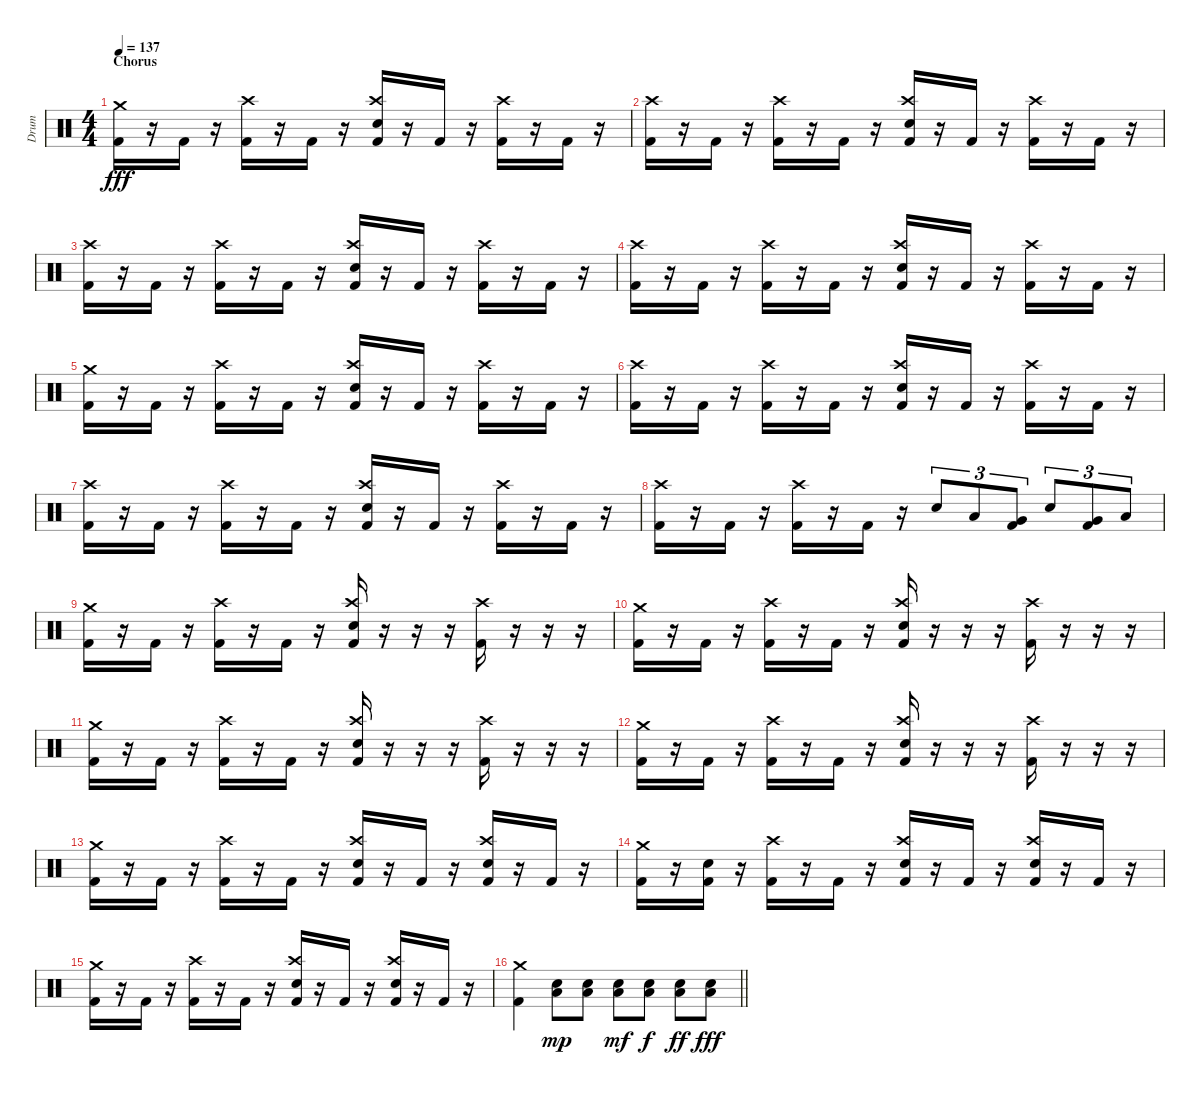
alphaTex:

\track ("Drum" "Drum") {instrument percussion}
\staff {score}
\articulation defaults
\ts (4 4)
\section ("" "Chorus")
\tempo 137
\clef neutral
\ks c
("Crash medium (hit)" "Kick (hit) 2").16{dy fff} r.16 "Kick (hit) 2".16 r.16 ("Crash high (hit)" "Kick (hit) 2").16 r.16 "Kick (hit) 2".16 r.16 ("Crash high (hit)" "Electric Snare (hit)" "Kick (hit) 2").16 r.16 "Kick (hit) 2".16 r.16 ("Crash high (hit)" "Kick (hit) 2").16 r.16 "Kick (hit) 2".16 r.16 |
("Crash high (hit)" "Kick (hit) 2").16 r.16 "Kick (hit) 2".16 r.16 ("Crash high (hit)" "Kick (hit) 2").16 r.16 "Kick (hit) 2".16 r.16 ("Crash high (hit)" "Electric Snare (hit)" "Kick (hit) 2").16 r.16 "Kick (hit) 2".16 r.16 ("Crash high (hit)" "Kick (hit) 2").16 r.16 "Kick (hit) 2".16 r.16 |
("Crash high (hit)" "Kick (hit) 2").16 r.16 "Kick (hit) 2".16 r.16 ("Crash high (hit)" "Kick (hit) 2").16 r.16 "Kick (hit) 2".16 r.16 ("Crash high (hit)" "Electric Snare (hit)" "Kick (hit) 2").16 r.16 "Kick (hit) 2".16 r.16 ("Crash high (hit)" "Kick (hit) 2").16 r.16 "Kick (hit) 2".16 r.16 |
("Crash high (hit)" "Kick (hit) 2").16 r.16 "Kick (hit) 2".16 r.16 ("Crash high (hit)" "Kick (hit) 2").16 r.16 "Kick (hit) 2".16 r.16 ("Crash high (hit)" "Electric Snare (hit)" "Kick (hit) 2").16 r.16 "Kick (hit) 2".16 r.16 ("Crash high (hit)" "Kick (hit) 2").16 r.16 "Kick (hit) 2".16 r.16 |
("Crash medium (hit)" "Kick (hit) 2").16 r.16 "Kick (hit) 2".16 r.16 ("Crash high (hit)" "Kick (hit) 2").16 r.16 "Kick (hit) 2".16 r.16 ("Crash high (hit)" "Electric Snare (hit)" "Kick (hit) 2").16 r.16 "Kick (hit) 2".16 r.16 ("Crash high (hit)" "Kick (hit) 2").16 r.16 "Kick (hit) 2".16 r.16 |
("Crash high (hit)" "Kick (hit) 2").16 r.16 "Kick (hit) 2".16 r.16 ("Crash high (hit)" "Kick (hit) 2").16 r.16 "Kick (hit) 2".16 r.16 ("Crash high (hit)" "Electric Snare (hit)" "Kick (hit) 2").16 r.16 "Kick (hit) 2".16 r.16 ("Crash high (hit)" "Kick (hit) 2").16 r.16 "Kick (hit) 2".16 r.16 |
("Crash high (hit)" "Kick (hit) 2").16 r.16 "Kick (hit) 2".16 r.16 ("Crash high (hit)" "Kick (hit) 2").16 r.16 "Kick (hit) 2".16 r.16 ("Crash high (hit)" "Electric Snare (hit)" "Kick (hit) 2").16 r.16 "Kick (hit) 2".16 r.16 ("Crash high (hit)" "Kick (hit) 2").16 r.16 "Kick (hit) 2".16 r.16 |
("Crash high (hit)" "Kick (hit) 2").16 r.16 "Kick (hit) 2".16 r.16 ("Crash high (hit)" "Kick (hit) 2").16 r.16 "Kick (hit) 2".16 r.16 "Electric Snare (hit)".8{tu (3 2)} "Low Tom (hit)".8{tu (3 2)} ("Very Low Tom (hit)" "Kick (hit) 2").8{tu (3 2)} "Electric Snare (hit)".8{tu (3 2)} ("Very Low Tom (hit)" "Kick (hit) 2").8{tu (3 2)} "Low Floor Tom (hit)".8{tu (3 2)} |
("Crash medium (hit)" "Kick (hit) 2").16 r.16 "Kick (hit) 2".16 r.16 ("Crash high (hit)" "Kick (hit) 2").16 r.16 "Kick (hit) 2".16 r.16 ("Crash high (hit)" "Electric Snare (hit)" "Kick (hit) 2").16 r.16 r.16 r.16 ("Crash high (hit)" "Kick (hit) 2").16 r.16 r.16 r.16 |
("Crash medium (hit)" "Kick (hit) 2").16 r.16 "Kick (hit) 2".16 r.16 ("Crash high (hit)" "Kick (hit) 2").16 r.16 "Kick (hit) 2".16 r.16 ("Crash high (hit)" "Electric Snare (hit)" "Kick (hit) 2").16 r.16 r.16 r.16 ("Crash high (hit)" "Kick (hit) 2").16 r.16 r.16 r.16 |
("Crash medium (hit)" "Kick (hit) 2").16 r.16 "Kick (hit) 2".16 r.16 ("Crash high (hit)" "Kick (hit) 2").16 r.16 "Kick (hit) 2".16 r.16 ("Crash high (hit)" "Electric Snare (hit)" "Kick (hit) 2").16 r.16 r.16 r.16 ("Crash high (hit)" "Kick (hit) 2").16 r.16 r.16 r.16 |
("Crash medium (hit)" "Kick (hit) 2").16 r.16 "Kick (hit) 2".16 r.16 ("Crash high (hit)" "Kick (hit) 2").16 r.16 "Kick (hit) 2".16 r.16 ("Crash high (hit)" "Electric Snare (hit)" "Kick (hit) 2").16 r.16 r.16 r.16 ("Crash high (hit)" "Kick (hit) 2").16 r.16 r.16 r.16 |
("Crash medium (hit)" "Kick (hit) 2").16 r.16 "Kick (hit) 2".16 r.16 ("Crash high (hit)" "Kick (hit) 2").16 r.16 "Kick (hit) 2".16 r.16 ("Crash high (hit)" "Electric Snare (hit)" "Kick (hit) 2").16 r.16 "Kick (hit) 2".16 r.16 ("Crash high (hit)" "Electric Snare (hit)" "Kick (hit) 2").16 r.16 "Kick (hit) 2".16 r.16 |
("Crash medium (hit)" "Kick (hit) 2").16 r.16 ("Electric Snare (hit)" "Kick (hit) 2").16 r.16 ("Crash high (hit)" "Kick (hit) 2").16 r.16 "Kick (hit) 2".16 r.16 ("Crash high (hit)" "Electric Snare (hit)" "Kick (hit) 2").16 r.16 "Kick (hit) 2".16 r.16 ("Crash high (hit)" "Electric Snare (hit)" "Kick (hit) 2").16 r.16 "Kick (hit) 2".16 r.16 |
("Crash medium (hit)" "Kick (hit) 2").16 r.16 "Kick (hit) 2".16 r.16 ("Crash high (hit)" "Kick (hit) 2").16 r.16 "Kick (hit) 2".16 r.16 ("Crash high (hit)" "Electric Snare (hit)" "Kick (hit) 2").16 r.16 "Kick (hit) 2".16 r.16 ("Crash high (hit)" "Electric Snare (hit)" "Kick (hit) 2").16 r.16 "Kick (hit) 2".16 r.16 |
\barLineRight lightlight
("Crash medium (hit)" "Kick (hit) 2").4 ("Low Floor Tom (hit)" "Electric Snare (hit)").8{dy mp} ("Low Floor Tom (hit)" "Electric Snare (hit)").8 ("Low Floor Tom (hit)" "Electric Snare (hit)").8{dy mf} ("Low Floor Tom (hit)" "Electric Snare (hit)").8{dy f} ("Low Floor Tom (hit)" "Electric Snare (hit)").8{dy ff} ("Low Floor Tom (hit)" "Electric Snare (hit)").8{dy fff}
